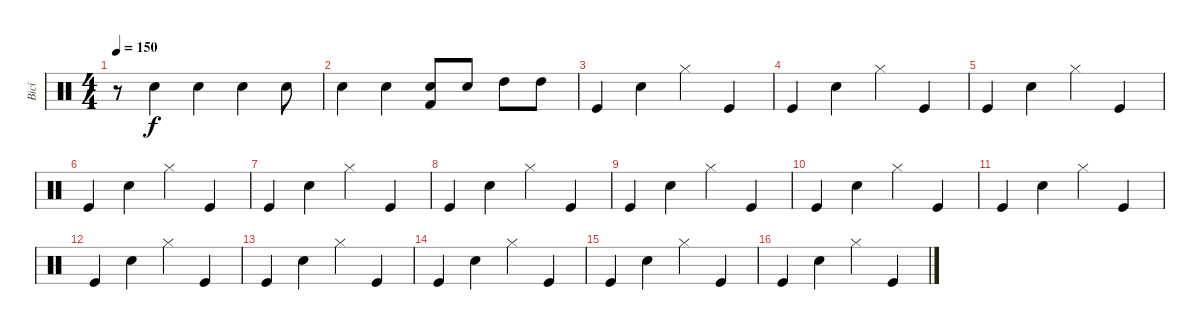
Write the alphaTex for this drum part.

\track ("Bicí" "Bicí") {instrument percussion}
\staff {score}
\articulation defaults
\ts (4 4)
\tempo 150
\clef neutral
\ks c
r.8{dy f} "Snare (hit) 2".4 "Snare (hit) 2".4 "Electric Snare (hit)".4 "Electric Snare (hit)".8 |
"Electric Snare (hit)".4 "Snare (hit) 2".4 ("Snare (hit) 2" "Kick (hit) 2").8 "Snare (hit) 2".8 "High Tom (hit)".8 "High Tom (hit)".8 |
"Kick (hit)".4 "Snare (hit)"{x}.4 "Hi-Hat (closed)".4 "Kick (hit)".4 |
"Kick (hit)".4 "Snare (hit)"{x}.4 "Hi-Hat (closed)".4 "Kick (hit)".4 |
"Kick (hit)".4 "Snare (hit)"{x}.4 "Hi-Hat (closed)".4 "Kick (hit)".4 |
"Kick (hit)".4 "Snare (hit)"{x}.4 "Hi-Hat (closed)".4 "Kick (hit)".4 |
"Kick (hit)".4 "Snare (hit)"{x}.4 "Hi-Hat (closed)".4 "Kick (hit)".4 |
"Kick (hit)".4 "Snare (hit)"{x}.4 "Hi-Hat (closed)".4 "Kick (hit)".4 |
"Kick (hit)".4 "Snare (hit)"{x}.4 "Hi-Hat (closed)".4 "Kick (hit)".4 |
"Kick (hit)".4 "Snare (hit)"{x}.4 "Hi-Hat (closed)".4 "Kick (hit)".4 |
"Kick (hit)".4 "Snare (hit)"{x}.4 "Hi-Hat (closed)".4 "Kick (hit)".4 |
"Kick (hit)".4 "Snare (hit)"{x}.4 "Hi-Hat (closed)".4 "Kick (hit)".4 |
"Kick (hit)".4 "Snare (hit)"{x}.4 "Hi-Hat (closed)".4 "Kick (hit)".4 |
"Kick (hit)".4 "Snare (hit)"{x}.4 "Hi-Hat (closed)".4 "Kick (hit)".4 |
"Kick (hit)".4 "Snare (hit)"{x}.4 "Hi-Hat (closed)".4 "Kick (hit)".4 |
"Kick (hit)".4 "Snare (hit)"{x}.4 "Hi-Hat (closed)".4 "Kick (hit)".4
